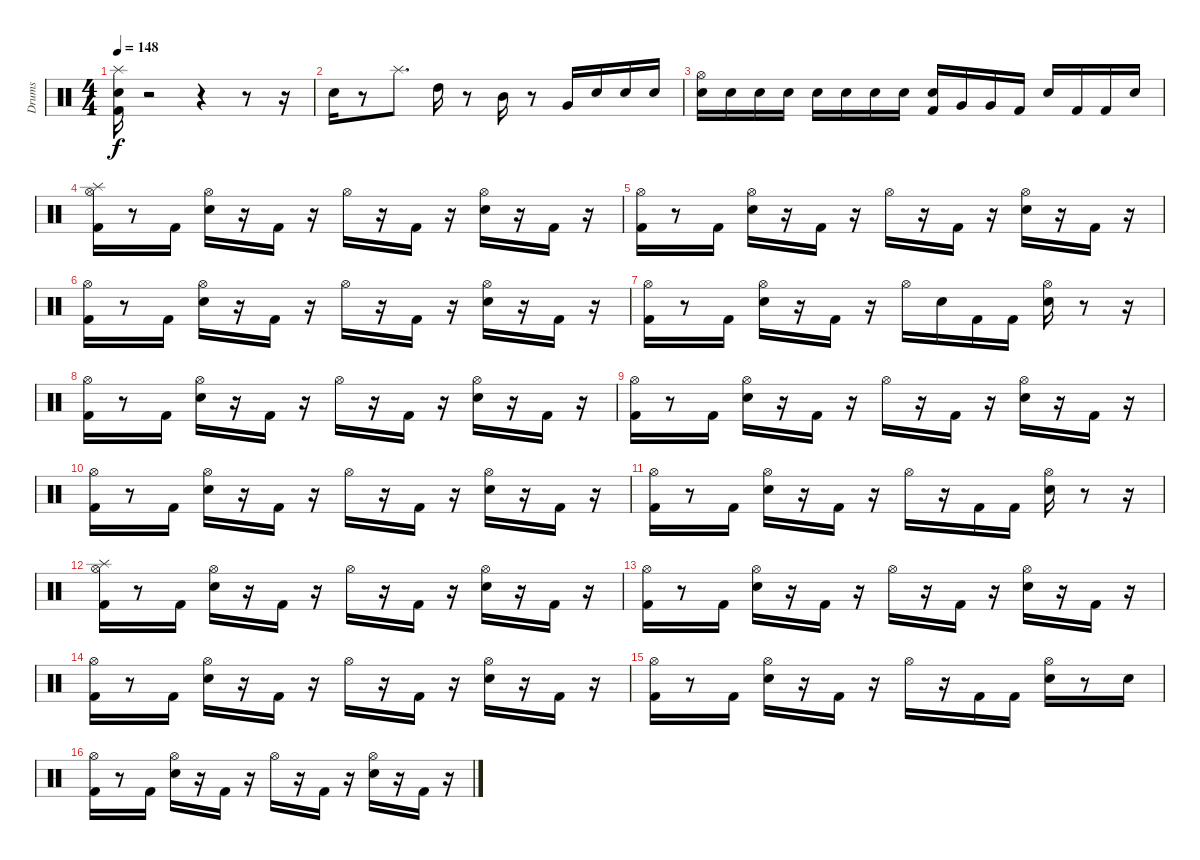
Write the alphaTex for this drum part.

\track ("Drums" "Drums") {instrument percussion}
\staff {score}
\articulation defaults
\ts (4 4)
\tempo 148
\clef neutral
\ks c
("Splash (hit)" "Kick (hit) 2" "Snare (hit) 2").16{dy f} r.2 r.4 r.8 r.16 |
"Snare (hit) 2".16 r.8 "Splash (hit)".8{d} "High Tom (hit)".16 r.8 "Mid Tom (hit)".16 r.8 "Very Low Tom (hit)".16 "Snare (hit) 2".16 "Snare (hit) 2".16 "Snare (hit) 2".16 |
("Hi-Hat (open)" "Snare (hit) 2").16 "Snare (hit) 2".16 "Snare (hit) 2".16 "Snare (hit) 2".16 "Snare (hit) 2".16 "Snare (hit) 2".16 "Snare (hit) 2".16 "Snare (hit) 2".16 ("Kick (hit) 2" "Snare (hit) 2").16 "Very Low Tom (hit)".16 "Very Low Tom (hit)".16 "Kick (hit) 2".16 "Snare (hit) 2".16 "Kick (hit) 2".16 "Kick (hit) 2".16 "Snare (hit) 2".16 |
("Hi-Hat (open)" "Splash (hit)" "Kick (hit) 2").16 r.8 "Kick (hit) 2".16 ("Hi-Hat (open)" "Snare (hit) 2").16 r.16 "Kick (hit) 2".16 r.16 "Hi-Hat (open)".16 r.16 "Kick (hit) 2".16 r.16 ("Hi-Hat (open)" "Snare (hit) 2").16 r.16 "Kick (hit) 2".16 r.16 |
("Hi-Hat (open)" "Kick (hit) 2").16 r.8 "Kick (hit) 2".16 ("Hi-Hat (open)" "Snare (hit) 2").16 r.16 "Kick (hit) 2".16 r.16 "Hi-Hat (open)".16 r.16 "Kick (hit) 2".16 r.16 ("Hi-Hat (open)" "Snare (hit) 2").16 r.16 "Kick (hit) 2".16 r.16 |
("Hi-Hat (open)" "Kick (hit) 2").16 r.8 "Kick (hit) 2".16 ("Hi-Hat (open)" "Snare (hit) 2").16 r.16 "Kick (hit) 2".16 r.16 "Hi-Hat (open)".16 r.16 "Kick (hit) 2".16 r.16 ("Hi-Hat (open)" "Snare (hit) 2").16 r.16 "Kick (hit) 2".16 r.16 |
("Hi-Hat (open)" "Kick (hit) 2").16 r.8 "Kick (hit) 2".16 ("Hi-Hat (open)" "Snare (hit) 2").16 r.16 "Kick (hit) 2".16 r.16 "Hi-Hat (open)".16 "Snare (hit) 2".16 "Kick (hit) 2".16 "Kick (hit) 2".16 ("Hi-Hat (open)" "Snare (hit) 2").16 r.8 r.16 |
("Hi-Hat (open)" "Kick (hit) 2").16 r.8 "Kick (hit) 2".16 ("Hi-Hat (open)" "Snare (hit) 2").16 r.16 "Kick (hit) 2".16 r.16 "Hi-Hat (open)".16 r.16 "Kick (hit) 2".16 r.16 ("Hi-Hat (open)" "Snare (hit) 2").16 r.16 "Kick (hit) 2".16 r.16 |
("Hi-Hat (open)" "Kick (hit) 2").16 r.8 "Kick (hit) 2".16 ("Hi-Hat (open)" "Snare (hit) 2").16 r.16 "Kick (hit) 2".16 r.16 "Hi-Hat (open)".16 r.16 "Kick (hit) 2".16 r.16 ("Hi-Hat (open)" "Snare (hit) 2").16 r.16 "Kick (hit) 2".16 r.16 |
("Hi-Hat (open)" "Kick (hit) 2").16 r.8 "Kick (hit) 2".16 ("Hi-Hat (open)" "Snare (hit) 2").16 r.16 "Kick (hit) 2".16 r.16 "Hi-Hat (open)".16 r.16 "Kick (hit) 2".16 r.16 ("Hi-Hat (open)" "Snare (hit) 2").16 r.16 "Kick (hit) 2".16 r.16 |
("Hi-Hat (open)" "Kick (hit) 2").16 r.8 "Kick (hit) 2".16 ("Hi-Hat (open)" "Snare (hit) 2").16 r.16 "Kick (hit) 2".16 r.16 "Hi-Hat (open)".16 r.16 "Kick (hit) 2".16 "Kick (hit) 2".16 ("Hi-Hat (open)" "Snare (hit) 2").16 r.8 r.16 |
("Hi-Hat (open)" "Splash (hit)" "Kick (hit) 2").16 r.8 "Kick (hit) 2".16 ("Hi-Hat (open)" "Snare (hit) 2").16 r.16 "Kick (hit) 2".16 r.16 "Hi-Hat (open)".16 r.16 "Kick (hit) 2".16 r.16 ("Hi-Hat (open)" "Snare (hit) 2").16 r.16 "Kick (hit) 2".16 r.16 |
("Hi-Hat (open)" "Kick (hit) 2").16 r.8 "Kick (hit) 2".16 ("Hi-Hat (open)" "Snare (hit) 2").16 r.16 "Kick (hit) 2".16 r.16 "Hi-Hat (open)".16 r.16 "Kick (hit) 2".16 r.16 ("Hi-Hat (open)" "Snare (hit) 2").16 r.16 "Kick (hit) 2".16 r.16 |
("Hi-Hat (open)" "Kick (hit) 2").16 r.8 "Kick (hit) 2".16 ("Hi-Hat (open)" "Snare (hit) 2").16 r.16 "Kick (hit) 2".16 r.16 "Hi-Hat (open)".16 r.16 "Kick (hit) 2".16 r.16 ("Hi-Hat (open)" "Snare (hit) 2").16 r.16 "Kick (hit) 2".16 r.16 |
("Hi-Hat (open)" "Kick (hit) 2").16 r.8 "Kick (hit) 2".16 ("Hi-Hat (open)" "Snare (hit) 2").16 r.16 "Kick (hit) 2".16 r.16 "Hi-Hat (open)".16 r.16 "Kick (hit) 2".16 "Kick (hit) 2".16 ("Hi-Hat (open)" "Snare (hit) 2").16 r.8 "Snare (hit) 2".16 |
("Hi-Hat (open)" "Kick (hit) 2").16 r.8 "Kick (hit) 2".16 ("Hi-Hat (open)" "Snare (hit) 2").16 r.16 "Kick (hit) 2".16 r.16 "Hi-Hat (open)".16 r.16 "Kick (hit) 2".16 r.16 ("Hi-Hat (open)" "Snare (hit) 2").16 r.16 "Kick (hit) 2".16 r.16
